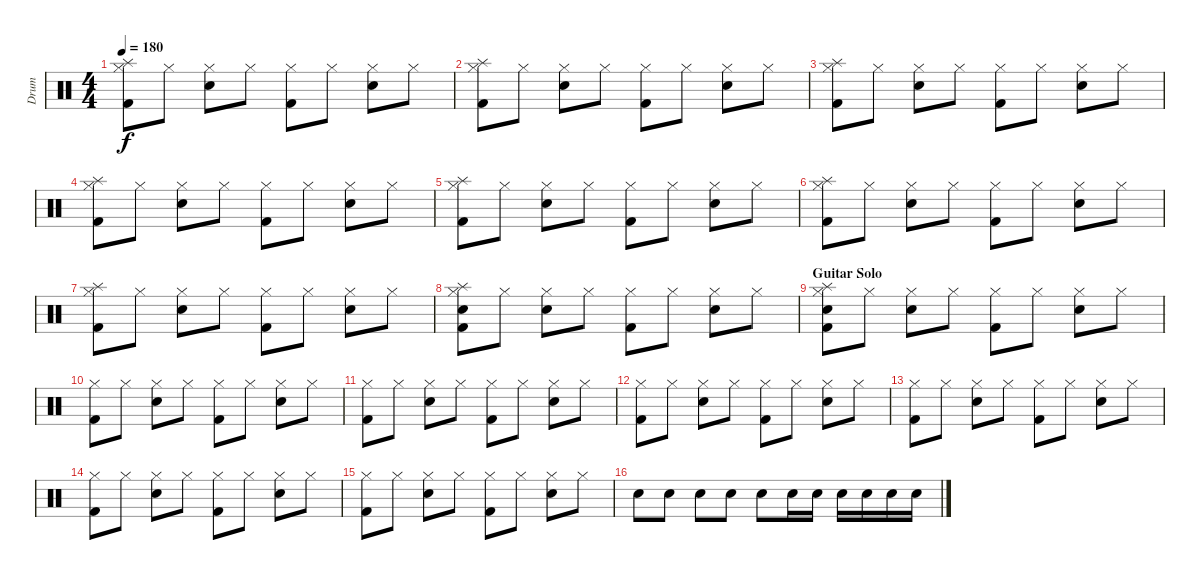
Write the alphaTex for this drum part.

\track ("Drum" "Drum") {instrument percussion}
\staff {score}
\articulation defaults
\ts (4 4)
\tempo 180
\clef neutral
\ks c
("Hi-Hat (closed)" "Kick (hit) 2" "Splash (hit)").8{dy f} "Hi-Hat (closed)".8 ("Hi-Hat (closed)" "Snare (hit) 2").8 "Hi-Hat (closed)".8 ("Hi-Hat (closed)" "Kick (hit) 2").8 "Hi-Hat (closed)".8 ("Hi-Hat (closed)" "Snare (hit) 2").8 "Hi-Hat (closed)".8 |
("Hi-Hat (closed)" "Kick (hit) 2" "Splash (hit)").8 "Hi-Hat (closed)".8 ("Hi-Hat (closed)" "Snare (hit) 2").8 "Hi-Hat (closed)".8 ("Hi-Hat (closed)" "Kick (hit) 2").8 "Hi-Hat (closed)".8 ("Hi-Hat (closed)" "Snare (hit) 2").8 "Hi-Hat (closed)".8 |
("Hi-Hat (closed)" "Kick (hit) 2" "Splash (hit)").8 "Hi-Hat (closed)".8 ("Hi-Hat (closed)" "Snare (hit) 2").8 "Hi-Hat (closed)".8 ("Hi-Hat (closed)" "Kick (hit) 2").8 "Hi-Hat (closed)".8 ("Hi-Hat (closed)" "Snare (hit) 2").8 "Hi-Hat (closed)".8 |
("Hi-Hat (closed)" "Kick (hit) 2" "Splash (hit)").8 "Hi-Hat (closed)".8 ("Hi-Hat (closed)" "Snare (hit) 2").8 "Hi-Hat (closed)".8 ("Hi-Hat (closed)" "Kick (hit) 2").8 "Hi-Hat (closed)".8 ("Hi-Hat (closed)" "Snare (hit) 2").8 "Hi-Hat (closed)".8 |
("Hi-Hat (closed)" "Kick (hit) 2" "Splash (hit)").8 "Hi-Hat (closed)".8 ("Hi-Hat (closed)" "Snare (hit) 2").8 "Hi-Hat (closed)".8 ("Hi-Hat (closed)" "Kick (hit) 2").8 "Hi-Hat (closed)".8 ("Hi-Hat (closed)" "Snare (hit) 2").8 "Hi-Hat (closed)".8 |
("Hi-Hat (closed)" "Kick (hit) 2" "Splash (hit)").8 "Hi-Hat (closed)".8 ("Hi-Hat (closed)" "Snare (hit) 2").8 "Hi-Hat (closed)".8 ("Hi-Hat (closed)" "Kick (hit) 2").8 "Hi-Hat (closed)".8 ("Hi-Hat (closed)" "Snare (hit) 2").8 "Hi-Hat (closed)".8 |
("Hi-Hat (closed)" "Kick (hit) 2" "Splash (hit)").8 "Hi-Hat (closed)".8 ("Hi-Hat (closed)" "Snare (hit) 2").8 "Hi-Hat (closed)".8 ("Hi-Hat (closed)" "Kick (hit) 2").8 "Hi-Hat (closed)".8 ("Hi-Hat (closed)" "Snare (hit) 2").8 "Hi-Hat (closed)".8 |
("Hi-Hat (closed)" "Kick (hit) 2" "Splash (hit)" "Snare (hit) 2").8 "Hi-Hat (closed)".8 ("Hi-Hat (closed)" "Snare (hit) 2").8 "Hi-Hat (closed)".8 ("Hi-Hat (closed)" "Kick (hit) 2").8 "Hi-Hat (closed)".8 ("Hi-Hat (closed)" "Snare (hit) 2").8 "Hi-Hat (closed)".8 |
\section ("" "Guitar Solo")
("Hi-Hat (closed)" "Kick (hit) 2" "Splash (hit)" "Snare (hit) 2").8 "Hi-Hat (closed)".8 ("Hi-Hat (closed)" "Snare (hit) 2").8 "Hi-Hat (closed)".8 ("Hi-Hat (closed)" "Kick (hit) 2").8 "Hi-Hat (closed)".8 ("Hi-Hat (closed)" "Snare (hit) 2").8 "Hi-Hat (closed)".8 |
("Hi-Hat (closed)" "Kick (hit) 2").8 "Hi-Hat (closed)".8 ("Hi-Hat (closed)" "Snare (hit) 2").8 "Hi-Hat (closed)".8 ("Hi-Hat (closed)" "Kick (hit) 2").8 "Hi-Hat (closed)".8 ("Hi-Hat (closed)" "Snare (hit) 2").8 "Hi-Hat (closed)".8 |
("Hi-Hat (closed)" "Kick (hit) 2").8 "Hi-Hat (closed)".8 ("Hi-Hat (closed)" "Snare (hit) 2").8 "Hi-Hat (closed)".8 ("Hi-Hat (closed)" "Kick (hit) 2").8 "Hi-Hat (closed)".8 ("Hi-Hat (closed)" "Snare (hit) 2").8 "Hi-Hat (closed)".8 |
("Hi-Hat (closed)" "Kick (hit) 2").8 "Hi-Hat (closed)".8 ("Hi-Hat (closed)" "Snare (hit) 2").8 "Hi-Hat (closed)".8 ("Hi-Hat (closed)" "Kick (hit) 2").8 "Hi-Hat (closed)".8 ("Hi-Hat (closed)" "Snare (hit) 2").8 "Hi-Hat (closed)".8 |
("Hi-Hat (closed)" "Kick (hit) 2").8 "Hi-Hat (closed)".8 ("Hi-Hat (closed)" "Snare (hit) 2").8 "Hi-Hat (closed)".8 ("Hi-Hat (closed)" "Kick (hit) 2").8 "Hi-Hat (closed)".8 ("Hi-Hat (closed)" "Snare (hit) 2").8 "Hi-Hat (closed)".8 |
("Hi-Hat (closed)" "Kick (hit) 2").8 "Hi-Hat (closed)".8 ("Hi-Hat (closed)" "Snare (hit) 2").8 "Hi-Hat (closed)".8 ("Hi-Hat (closed)" "Kick (hit) 2").8 "Hi-Hat (closed)".8 ("Hi-Hat (closed)" "Snare (hit) 2").8 "Hi-Hat (closed)".8 |
("Hi-Hat (closed)" "Kick (hit) 2").8 "Hi-Hat (closed)".8 ("Hi-Hat (closed)" "Snare (hit) 2").8 "Hi-Hat (closed)".8 ("Hi-Hat (closed)" "Kick (hit) 2").8 "Hi-Hat (closed)".8 ("Hi-Hat (closed)" "Snare (hit) 2").8 "Hi-Hat (closed)".8 |
"Electric Snare (hit)".8 "Electric Snare (hit)".8 "Electric Snare (hit)".8 "Electric Snare (hit)".8 "Electric Snare (hit)".8 "Electric Snare (hit)".16 "Electric Snare (hit)".16 "Electric Snare (hit)".16 "Electric Snare (hit)".16 "Electric Snare (hit)".16 "Electric Snare (hit)".16
